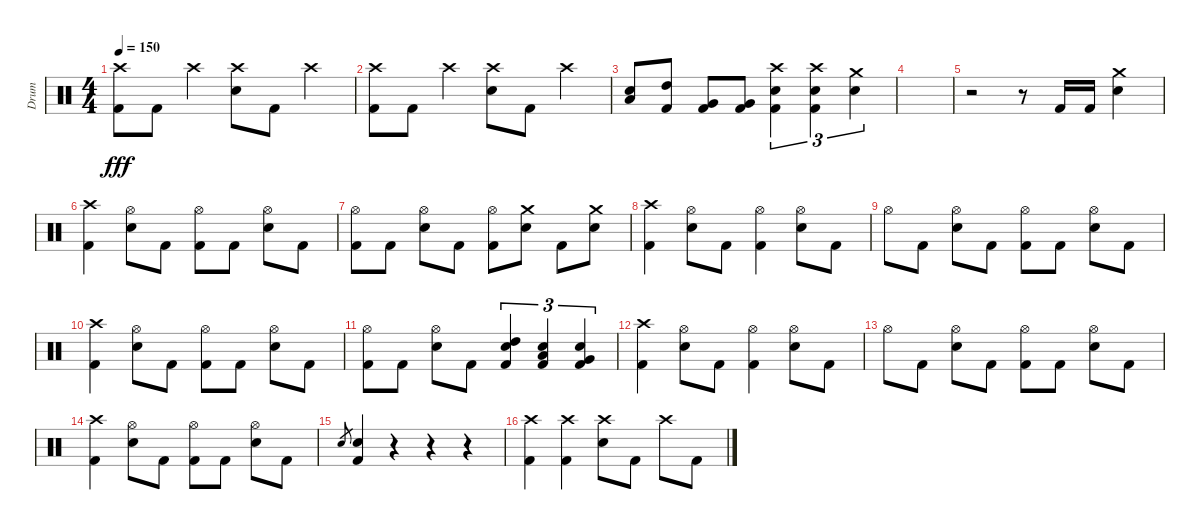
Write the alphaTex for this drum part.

\track ("Drum" "Drum") {instrument percussion}
\staff {score}
\articulation defaults
\ts (4 4)
\tempo 150
\clef neutral
\ks c
("Crash high (hit)" "Kick (hit) 2").8{dy fff} "Kick (hit) 2".8 "Crash high (hit)".4 ("Crash high (hit)" "Electric Snare (hit)").8 "Kick (hit) 2".8 "Crash high (hit)".4 |
("Crash high (hit)" "Kick (hit) 2").8 "Kick (hit) 2".8 "Crash high (hit)".4 ("Crash high (hit)" "Electric Snare (hit)").8 "Kick (hit) 2".8 "Crash high (hit)".4 |
("Electric Snare (hit)" "Low Floor Tom (hit)").8 ("High Tom (hit)" "Kick (hit) 2").8 ("Very Low Tom (hit)" "Kick (hit) 2").8 ("Very Low Tom (hit)" "Kick (hit) 2").8 ("Crash high (hit)" "Electric Snare (hit)" "Kick (hit) 2").4{tu (3 2)} ("Crash high (hit)" "Electric Snare (hit)" "Kick (hit) 2").4{tu (3 2)} ("Crash medium (hit)" "Electric Snare (hit)").4{tu (3 2)} |
|
r.2 r.8 "Kick (hit) 2".16 "Kick (hit) 2".16 ("Crash medium (hit)" "Electric Snare (hit)").4 |
("Crash high (hit)" "Kick (hit) 2").4 ("Hi-Hat (open)" "Electric Snare (hit)").8 "Kick (hit) 2".8 ("Hi-Hat (open)" "Kick (hit) 2").8 "Kick (hit) 2".8 ("Hi-Hat (open)" "Electric Snare (hit)").8 "Kick (hit) 2".8 |
("Hi-Hat (open)" "Kick (hit) 2").8 "Kick (hit) 2".8 ("Hi-Hat (open)" "Electric Snare (hit)").8 "Kick (hit) 2".8 ("Hi-Hat (open)" "Kick (hit) 2").8 ("Crash medium (hit)" "Electric Snare (hit)").8 "Kick (hit) 2".8 ("Crash medium (hit)" "Electric Snare (hit)").8 |
("Crash high (hit)" "Kick (hit) 2").4 ("Hi-Hat (open)" "Electric Snare (hit)").8 "Kick (hit) 2".8 ("Hi-Hat (open)" "Kick (hit) 2").4 ("Hi-Hat (open)" "Electric Snare (hit)").8 "Kick (hit) 2".8 |
"Hi-Hat (open)".8 "Kick (hit) 2".8 ("Hi-Hat (open)" "Electric Snare (hit)").8 "Kick (hit) 2".8 ("Hi-Hat (open)" "Kick (hit) 2").8 "Kick (hit) 2".8 ("Hi-Hat (open)" "Electric Snare (hit)").8 "Kick (hit) 2".8 |
("Crash high (hit)" "Kick (hit) 2").4 ("Hi-Hat (open)" "Electric Snare (hit)").8 "Kick (hit) 2".8 ("Hi-Hat (open)" "Kick (hit) 2").8 "Kick (hit) 2".8 ("Hi-Hat (open)" "Electric Snare (hit)").8 "Kick (hit) 2".8 |
("Hi-Hat (open)" "Kick (hit) 2").8 "Kick (hit) 2".8 ("Hi-Hat (open)" "Electric Snare (hit)").8 "Kick (hit) 2".8 ("Electric Snare (hit)" "High Tom (hit)" "Kick (hit) 2").4{tu (3 2)} ("Electric Snare (hit)" "Low Tom (hit)" "Kick (hit) 2").4{tu (3 2)} ("Electric Snare (hit)" "Very Low Tom (hit)" "Kick (hit) 2").4{tu (3 2)} |
("Crash high (hit)" "Kick (hit) 2").4 ("Hi-Hat (open)" "Electric Snare (hit)").8 "Kick (hit) 2".8 ("Hi-Hat (open)" "Kick (hit) 2").4 ("Hi-Hat (open)" "Electric Snare (hit)").8 "Kick (hit) 2".8 |
"Hi-Hat (open)".8 "Kick (hit) 2".8 ("Hi-Hat (open)" "Electric Snare (hit)").8 "Kick (hit) 2".8 ("Hi-Hat (open)" "Kick (hit) 2").8 "Kick (hit) 2".8 ("Hi-Hat (open)" "Electric Snare (hit)").8 "Kick (hit) 2".8 |
("Crash high (hit)" "Kick (hit) 2").4 ("Hi-Hat (open)" "Electric Snare (hit)").8 "Kick (hit) 2".8 ("Hi-Hat (open)" "Kick (hit) 2").8 "Kick (hit) 2".8 ("Hi-Hat (open)" "Electric Snare (hit)").8 "Kick (hit) 2".8 |
"Electric Snare (hit)".8{gr} ("Electric Snare (hit)" "Kick (hit) 2").4 r.4 r.4 r.4 |
("Crash high (hit)" "Kick (hit) 2").4 ("Crash high (hit)" "Kick (hit) 2").4 ("Crash high (hit)" "Electric Snare (hit)").8 "Kick (hit) 2".8 "Crash high (hit)".8 "Kick (hit) 2".8
